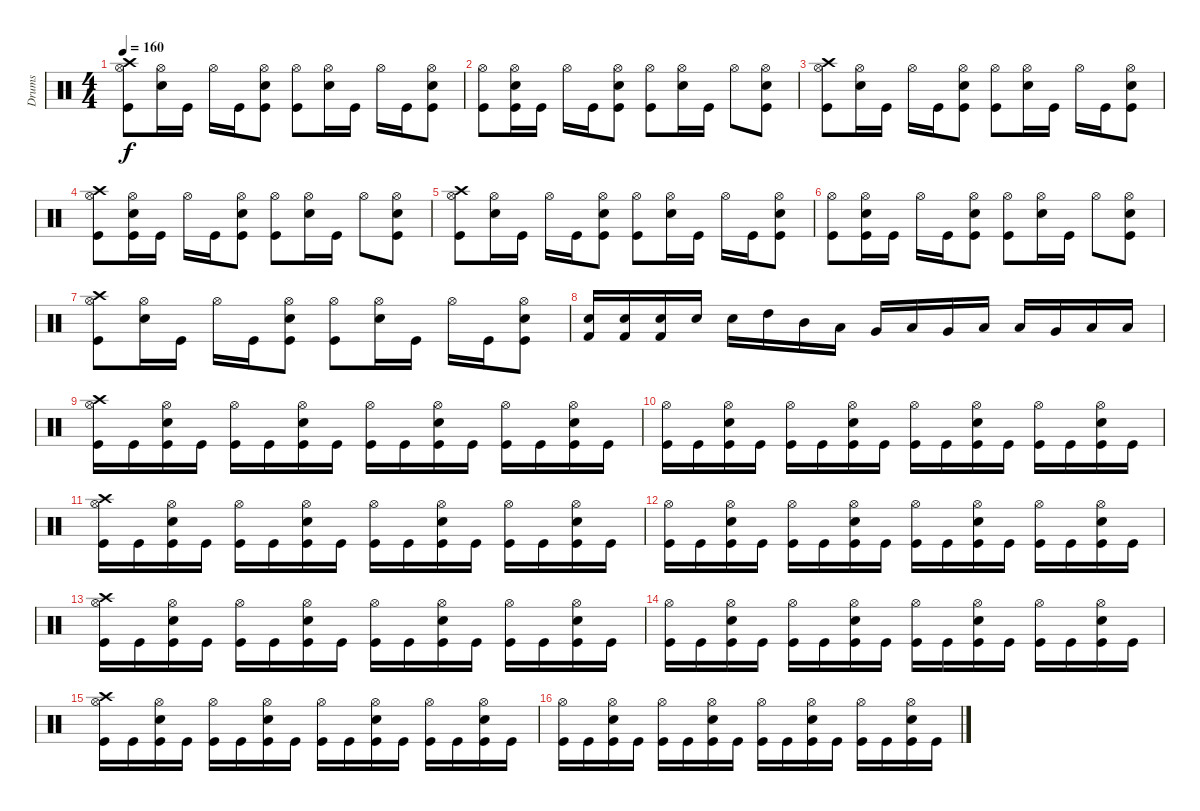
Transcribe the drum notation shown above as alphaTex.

\track ("Drums" "Drums") {instrument percussion}
\staff {score}
\articulation defaults
\ts (4 4)
\tempo 160
\clef neutral
\ks c
("Crash high (hit)" "Hi-Hat (open)" "Kick (hit)").8{dy f} ("Hi-Hat (open)" "Electric Snare (hit)").16 "Kick (hit)".16 "Hi-Hat (open)".16 "Kick (hit)".16 ("Hi-Hat (open)" "Electric Snare (hit)" "Kick (hit)").8 ("Hi-Hat (open)" "Kick (hit)").8 ("Hi-Hat (open)" "Electric Snare (hit)").16 "Kick (hit)".16 "Hi-Hat (open)".16 "Kick (hit)".16 ("Hi-Hat (open)" "Electric Snare (hit)" "Kick (hit)").8 |
("Hi-Hat (open)" "Kick (hit)").8 ("Hi-Hat (open)" "Electric Snare (hit)" "Kick (hit)").16 "Kick (hit)".16 "Hi-Hat (open)".16 "Kick (hit)".16 ("Hi-Hat (open)" "Electric Snare (hit)" "Kick (hit)").8 ("Hi-Hat (open)" "Kick (hit)").8 ("Hi-Hat (open)" "Electric Snare (hit)").16 "Kick (hit)".16 "Hi-Hat (open)".8 ("Hi-Hat (open)" "Electric Snare (hit)" "Kick (hit)").8 |
("Crash high (hit)" "Hi-Hat (open)" "Kick (hit)").8 ("Hi-Hat (open)" "Electric Snare (hit)").16 "Kick (hit)".16 "Hi-Hat (open)".16 "Kick (hit)".16 ("Hi-Hat (open)" "Electric Snare (hit)" "Kick (hit)").8 ("Hi-Hat (open)" "Kick (hit)").8 ("Hi-Hat (open)" "Electric Snare (hit)").16 "Kick (hit)".16 "Hi-Hat (open)".16 "Kick (hit)".16 ("Hi-Hat (open)" "Electric Snare (hit)" "Kick (hit)").8 |
("Crash high (hit)" "Hi-Hat (open)" "Kick (hit)").8 ("Hi-Hat (open)" "Electric Snare (hit)" "Kick (hit)").16 "Kick (hit)".16 "Hi-Hat (open)".16 "Kick (hit)".16 ("Hi-Hat (open)" "Electric Snare (hit)" "Kick (hit)").8 ("Hi-Hat (open)" "Kick (hit)").8 ("Hi-Hat (open)" "Electric Snare (hit)").16 "Kick (hit)".16 "Hi-Hat (open)".8 ("Hi-Hat (open)" "Electric Snare (hit)" "Kick (hit)").8 |
("Crash high (hit)" "Hi-Hat (open)" "Kick (hit)").8 ("Hi-Hat (open)" "Electric Snare (hit)").16 "Kick (hit)".16 "Hi-Hat (open)".16 "Kick (hit)".16 ("Hi-Hat (open)" "Electric Snare (hit)" "Kick (hit)").8 ("Hi-Hat (open)" "Kick (hit)").8 ("Hi-Hat (open)" "Electric Snare (hit)").16 "Kick (hit)".16 "Hi-Hat (open)".16 "Kick (hit)".16 ("Hi-Hat (open)" "Electric Snare (hit)" "Kick (hit)").8 |
("Hi-Hat (open)" "Kick (hit)").8 ("Hi-Hat (open)" "Electric Snare (hit)" "Kick (hit)").16 "Kick (hit)".16 "Hi-Hat (open)".16 "Kick (hit)".16 ("Hi-Hat (open)" "Electric Snare (hit)" "Kick (hit)").8 ("Hi-Hat (open)" "Kick (hit)").8 ("Hi-Hat (open)" "Electric Snare (hit)").16 "Kick (hit)".16 "Hi-Hat (open)".8 ("Hi-Hat (open)" "Electric Snare (hit)" "Kick (hit)").8 |
("Crash high (hit)" "Hi-Hat (open)" "Kick (hit)").8 ("Hi-Hat (open)" "Electric Snare (hit)").16 "Kick (hit)".16 "Hi-Hat (open)".16 "Kick (hit)".16 ("Hi-Hat (open)" "Electric Snare (hit)" "Kick (hit)").8 ("Hi-Hat (open)" "Kick (hit)").8 ("Hi-Hat (open)" "Electric Snare (hit)").16 "Kick (hit)".16 "Hi-Hat (open)".16 "Kick (hit)".16 ("Hi-Hat (open)" "Electric Snare (hit)" "Kick (hit)").8 |
("Snare (hit) 2" "Kick (hit) 2").16 ("Electric Snare (hit)" "Kick (hit) 2").16 ("Electric Snare (hit)" "Kick (hit) 2").16 "Snare (hit) 2".16 "Snare (hit) 2".16 "High Tom (hit)".16 "Mid Tom (hit)".16 "Low Tom (hit)".16 "Very Low Tom (hit)".16 "Low Tom (hit)".16 "Very Low Tom (hit)".16 "Low Floor Tom (hit)".16 "Low Tom (hit)".16 "Very Low Tom (hit)".16 "Low Floor Tom (hit)".16 "Low Floor Tom (hit)".16 |
("Crash high (hit)" "Hi-Hat (open)" "Kick (hit)").16 "Kick (hit)".16 ("Hi-Hat (open)" "Electric Snare (hit)" "Kick (hit)").16 "Kick (hit)".16 ("Hi-Hat (open)" "Kick (hit)").16 "Kick (hit)".16 ("Hi-Hat (open)" "Electric Snare (hit)" "Kick (hit)").16 "Kick (hit)".16 ("Hi-Hat (open)" "Kick (hit)").16 "Kick (hit)".16 ("Hi-Hat (open)" "Electric Snare (hit)" "Kick (hit)").16 "Kick (hit)".16 ("Hi-Hat (open)" "Kick (hit)").16 "Kick (hit)".16 ("Hi-Hat (open)" "Electric Snare (hit)" "Kick (hit)").16 "Kick (hit)".16 |
("Hi-Hat (open)" "Kick (hit)").16 "Kick (hit)".16 ("Hi-Hat (open)" "Electric Snare (hit)" "Kick (hit)").16 "Kick (hit)".16 ("Hi-Hat (open)" "Kick (hit)").16 "Kick (hit)".16 ("Hi-Hat (open)" "Electric Snare (hit)" "Kick (hit)").16 "Kick (hit)".16 ("Hi-Hat (open)" "Kick (hit)").16 "Kick (hit)".16 ("Hi-Hat (open)" "Electric Snare (hit)" "Kick (hit)").16 "Kick (hit)".16 ("Hi-Hat (open)" "Kick (hit)").16 "Kick (hit)".16 ("Hi-Hat (open)" "Electric Snare (hit)" "Kick (hit)").16 "Kick (hit)".16 |
("Crash high (hit)" "Hi-Hat (open)" "Kick (hit)").16 "Kick (hit)".16 ("Hi-Hat (open)" "Electric Snare (hit)" "Kick (hit)").16 "Kick (hit)".16 ("Hi-Hat (open)" "Kick (hit)").16 "Kick (hit)".16 ("Hi-Hat (open)" "Electric Snare (hit)" "Kick (hit)").16 "Kick (hit)".16 ("Hi-Hat (open)" "Kick (hit)").16 "Kick (hit)".16 ("Hi-Hat (open)" "Electric Snare (hit)" "Kick (hit)").16 "Kick (hit)".16 ("Hi-Hat (open)" "Kick (hit)").16 "Kick (hit)".16 ("Hi-Hat (open)" "Electric Snare (hit)" "Kick (hit)").16 "Kick (hit)".16 |
("Hi-Hat (open)" "Kick (hit)").16 "Kick (hit)".16 ("Hi-Hat (open)" "Electric Snare (hit)" "Kick (hit)").16 "Kick (hit)".16 ("Hi-Hat (open)" "Kick (hit)").16 "Kick (hit)".16 ("Hi-Hat (open)" "Electric Snare (hit)" "Kick (hit)").16 "Kick (hit)".16 ("Hi-Hat (open)" "Kick (hit)").16 "Kick (hit)".16 ("Hi-Hat (open)" "Electric Snare (hit)" "Kick (hit)").16 "Kick (hit)".16 ("Hi-Hat (open)" "Kick (hit)").16 "Kick (hit)".16 ("Hi-Hat (open)" "Electric Snare (hit)" "Kick (hit)").16 "Kick (hit)".16 |
("Crash high (hit)" "Hi-Hat (open)" "Kick (hit)").16 "Kick (hit)".16 ("Hi-Hat (open)" "Electric Snare (hit)" "Kick (hit)").16 "Kick (hit)".16 ("Hi-Hat (open)" "Kick (hit)").16 "Kick (hit)".16 ("Hi-Hat (open)" "Electric Snare (hit)" "Kick (hit)").16 "Kick (hit)".16 ("Hi-Hat (open)" "Kick (hit)").16 "Kick (hit)".16 ("Hi-Hat (open)" "Electric Snare (hit)" "Kick (hit)").16 "Kick (hit)".16 ("Hi-Hat (open)" "Kick (hit)").16 "Kick (hit)".16 ("Hi-Hat (open)" "Electric Snare (hit)" "Kick (hit)").16 "Kick (hit)".16 |
("Hi-Hat (open)" "Kick (hit)").16 "Kick (hit)".16 ("Hi-Hat (open)" "Electric Snare (hit)" "Kick (hit)").16 "Kick (hit)".16 ("Hi-Hat (open)" "Kick (hit)").16 "Kick (hit)".16 ("Hi-Hat (open)" "Electric Snare (hit)" "Kick (hit)").16 "Kick (hit)".16 ("Hi-Hat (open)" "Kick (hit)").16 "Kick (hit)".16 ("Hi-Hat (open)" "Electric Snare (hit)" "Kick (hit)").16 "Kick (hit)".16 ("Hi-Hat (open)" "Kick (hit)").16 "Kick (hit)".16 ("Hi-Hat (open)" "Electric Snare (hit)" "Kick (hit)").16 "Kick (hit)".16 |
("Crash high (hit)" "Hi-Hat (open)" "Kick (hit)").16 "Kick (hit)".16 ("Hi-Hat (open)" "Electric Snare (hit)" "Kick (hit)").16 "Kick (hit)".16 ("Hi-Hat (open)" "Kick (hit)").16 "Kick (hit)".16 ("Hi-Hat (open)" "Electric Snare (hit)" "Kick (hit)").16 "Kick (hit)".16 ("Hi-Hat (open)" "Kick (hit)").16 "Kick (hit)".16 ("Hi-Hat (open)" "Electric Snare (hit)" "Kick (hit)").16 "Kick (hit)".16 ("Hi-Hat (open)" "Kick (hit)").16 "Kick (hit)".16 ("Hi-Hat (open)" "Electric Snare (hit)" "Kick (hit)").16 "Kick (hit)".16 |
("Hi-Hat (open)" "Kick (hit)").16 "Kick (hit)".16 ("Hi-Hat (open)" "Electric Snare (hit)" "Kick (hit)").16 "Kick (hit)".16 ("Hi-Hat (open)" "Kick (hit)").16 "Kick (hit)".16 ("Hi-Hat (open)" "Electric Snare (hit)" "Kick (hit)").16 "Kick (hit)".16 ("Hi-Hat (open)" "Kick (hit)").16 "Kick (hit)".16 ("Hi-Hat (open)" "Electric Snare (hit)" "Kick (hit)").16 "Kick (hit)".16 ("Hi-Hat (open)" "Kick (hit)").16 "Kick (hit)".16 ("Hi-Hat (open)" "Electric Snare (hit)" "Kick (hit)").16 "Kick (hit)".16
